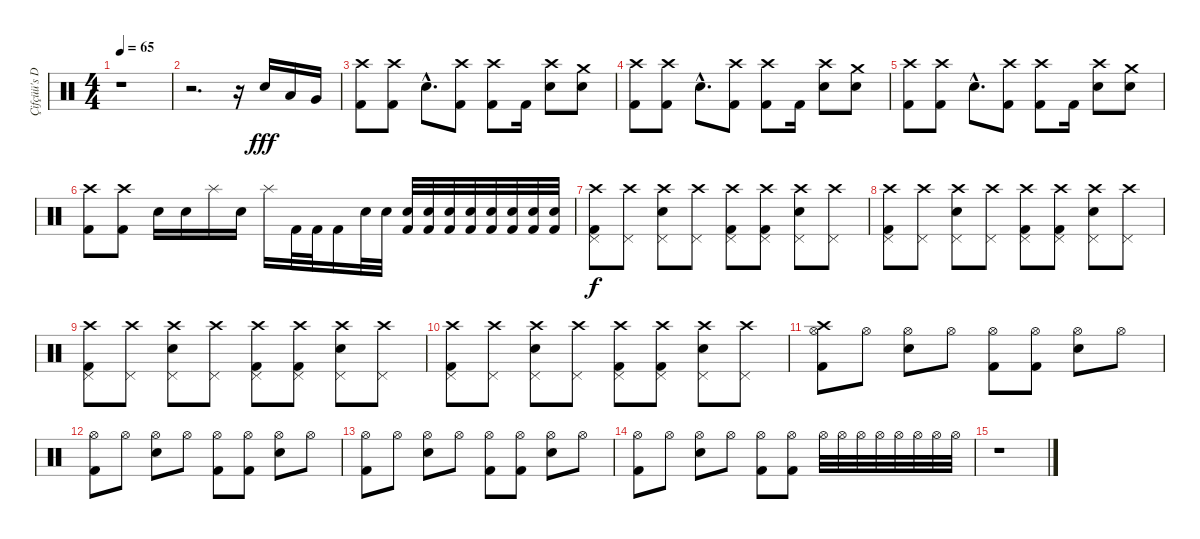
\track ("Çifçüü's Drum" "Çifçüü's D") {instrument percussion}
\staff {score}
\articulation defaults
\ts (4 4)
\tempo 65
\clef neutral
\ks c
r.1{dy fff} |
r.2{d} r.16 "Electric Snare (hit)".16 "Low Tom (hit)".16 "Very Low Tom (hit)".16 |
("Crash high (hit)" "Kick (hit) 2").8 ("Crash high (hit)" "Kick (hit) 2").8 "Electric Snare (hit)"{hac}.8{d} ("Crash high (hit)" "Kick (hit) 2").8 ("Crash high (hit)" "Kick (hit) 2").8 "Kick (hit) 2".16 ("Crash high (hit)" "Electric Snare (hit)").8{balance 0} ("Crash medium (hit)" "Electric Snare (hit)").8{balance 16} |
("Crash high (hit)" "Kick (hit) 2").8{balance 8} ("Crash high (hit)" "Kick (hit) 2").8 "Electric Snare (hit)"{hac}.8{d} ("Crash high (hit)" "Kick (hit) 2").8 ("Crash high (hit)" "Kick (hit) 2").8 "Kick (hit) 2".16 ("Crash high (hit)" "Electric Snare (hit)").8{balance 0} ("Crash medium (hit)" "Electric Snare (hit)").8{balance 16} |
("Crash high (hit)" "Kick (hit) 2").8{balance 8} ("Crash high (hit)" "Kick (hit) 2").8 "Electric Snare (hit)"{hac}.8{d} ("Crash high (hit)" "Kick (hit) 2").8 ("Crash high (hit)" "Kick (hit) 2").8 "Kick (hit) 2".16 ("Crash high (hit)" "Electric Snare (hit)").8{balance 0} ("Crash medium (hit)" "Electric Snare (hit)").8{balance 16} |
("Crash high (hit)" "Kick (hit) 2").8{balance 8} ("Crash high (hit)" "Kick (hit) 2").8 "Electric Snare (hit)".16 "Electric Snare (hit)".16 "Splash (hit)".16{balance 0} "Electric Snare (hit)".16{balance 8} "Splash (hit)".16{balance 16} "Kick (hit) 2".32{balance 8} "Kick (hit) 2".32 "Kick (hit) 2".16 "Electric Snare (hit)".32 "Electric Snare (hit)".32 ("Electric Snare (hit)" "Kick (hit) 2").32 ("Electric Snare (hit)" "Kick (hit) 2").32 ("Electric Snare (hit)" "Kick (hit) 2").32 ("Electric Snare (hit)" "Kick (hit) 2").32 ("Electric Snare (hit)" "Kick (hit) 2").32 ("Electric Snare (hit)" "Kick (hit) 2").32 ("Electric Snare (hit)" "Kick (hit) 2").32 ("Electric Snare (hit)" "Kick (hit) 2").32 |
("Crash high (hit)" "Pedal Hi-Hat (hit)" "Kick (hit) 2").8{dy f} ("Crash high (hit)" "Pedal Hi-Hat (hit)").8 ("Crash high (hit)" "Pedal Hi-Hat (hit)" "Snare (hit) 2").8 ("Crash high (hit)" "Pedal Hi-Hat (hit)").8 ("Crash high (hit)" "Pedal Hi-Hat (hit)" "Kick (hit) 2").8 ("Crash high (hit)" "Pedal Hi-Hat (hit)" "Kick (hit) 2").8 ("Crash high (hit)" "Pedal Hi-Hat (hit)" "Snare (hit) 2").8 ("Crash high (hit)" "Pedal Hi-Hat (hit)").8 |
("Crash high (hit)" "Pedal Hi-Hat (hit)" "Kick (hit) 2").8 ("Crash high (hit)" "Pedal Hi-Hat (hit)").8 ("Crash high (hit)" "Pedal Hi-Hat (hit)" "Snare (hit) 2").8 ("Crash high (hit)" "Pedal Hi-Hat (hit)").8 ("Crash high (hit)" "Pedal Hi-Hat (hit)" "Kick (hit) 2").8 ("Crash high (hit)" "Pedal Hi-Hat (hit)" "Kick (hit) 2").8 ("Crash high (hit)" "Pedal Hi-Hat (hit)" "Snare (hit) 2").8 ("Crash high (hit)" "Pedal Hi-Hat (hit)").8 |
("Crash high (hit)" "Pedal Hi-Hat (hit)" "Kick (hit) 2").8 ("Crash high (hit)" "Pedal Hi-Hat (hit)").8 ("Crash high (hit)" "Pedal Hi-Hat (hit)" "Snare (hit) 2").8 ("Crash high (hit)" "Pedal Hi-Hat (hit)").8 ("Crash high (hit)" "Pedal Hi-Hat (hit)" "Kick (hit) 2").8 ("Crash high (hit)" "Pedal Hi-Hat (hit)" "Kick (hit) 2").8 ("Crash high (hit)" "Pedal Hi-Hat (hit)" "Snare (hit) 2").8 ("Crash high (hit)" "Pedal Hi-Hat (hit)").8 |
("Crash high (hit)" "Pedal Hi-Hat (hit)" "Kick (hit) 2").8 ("Crash high (hit)" "Pedal Hi-Hat (hit)").8 ("Crash high (hit)" "Pedal Hi-Hat (hit)" "Snare (hit) 2").8 ("Crash high (hit)" "Pedal Hi-Hat (hit)").8 ("Crash high (hit)" "Pedal Hi-Hat (hit)" "Kick (hit) 2").8 ("Crash high (hit)" "Pedal Hi-Hat (hit)" "Kick (hit) 2").8 ("Crash high (hit)" "Pedal Hi-Hat (hit)" "Snare (hit) 2").8 ("Crash high (hit)" "Pedal Hi-Hat (hit)").8 |
("Crash high (hit)" "Hi-Hat (open)" "Kick (hit) 2").8{volume 8} "Hi-Hat (open)".8 ("Hi-Hat (open)" "Snare (hit) 2").8 "Hi-Hat (open)".8 ("Hi-Hat (open)" "Kick (hit) 2").8 ("Hi-Hat (open)" "Kick (hit) 2").8 ("Hi-Hat (open)" "Snare (hit) 2").8 "Hi-Hat (open)".8 |
("Hi-Hat (open)" "Kick (hit) 2").8 "Hi-Hat (open)".8 ("Hi-Hat (open)" "Snare (hit) 2").8 "Hi-Hat (open)".8 ("Hi-Hat (open)" "Kick (hit) 2").8 ("Hi-Hat (open)" "Kick (hit) 2").8 ("Hi-Hat (open)" "Snare (hit) 2").8 "Hi-Hat (open)".8 |
("Hi-Hat (open)" "Kick (hit) 2").8{volume 0} "Hi-Hat (open)".8 ("Hi-Hat (open)" "Snare (hit) 2").8 "Hi-Hat (open)".8 ("Hi-Hat (open)" "Kick (hit) 2").8 ("Hi-Hat (open)" "Kick (hit) 2").8 ("Hi-Hat (open)" "Snare (hit) 2").8 "Hi-Hat (open)".8 |
("Hi-Hat (open)" "Kick (hit) 2").8 "Hi-Hat (open)".8 ("Hi-Hat (open)" "Snare (hit) 2").8 "Hi-Hat (open)".8 ("Hi-Hat (open)" "Kick (hit) 2").8 ("Hi-Hat (open)" "Kick (hit) 2").8 "Hi-Hat (open)".32 "Hi-Hat (open)".32 "Hi-Hat (open)".32 "Hi-Hat (open)".32 "Hi-Hat (open)".32 "Hi-Hat (open)".32 "Hi-Hat (open)".32 "Hi-Hat (open)".32 |
r.1
